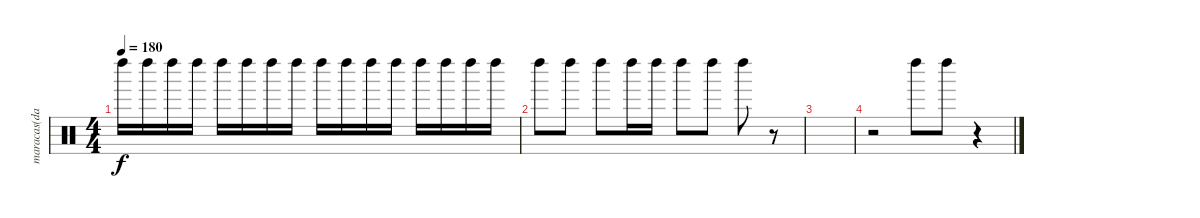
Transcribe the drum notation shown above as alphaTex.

\track ("maracas(dave)" "maracas(da") {instrument percussion}
\staff {score}
\articulation defaults
\ts (4 4)
\tempo 180
\clef neutral
\ks c "Left Maraca (hit)".16{dy f} "Left Maraca (hit)".16 "Left Maraca (hit)".16 "Left Maraca (hit)".16 "Left Maraca (hit)".16 "Left Maraca (hit)".16 "Left Maraca (hit)".16 "Left Maraca (hit)".16 "Left Maraca (hit)".16 "Left Maraca (hit)".16 "Left Maraca (hit)".16 "Left Maraca (hit)".16 "Left Maraca (hit)".16 "Left Maraca (hit)".16 "Left Maraca (hit)".16 "Left Maraca (hit)".16
|
"Left Maraca (hit)".8 "Left Maraca (hit)".8 "Left Maraca (hit)".8 "Left Maraca (hit)".16 "Left Maraca (hit)".16 "Left Maraca (hit)".8 "Left Maraca (hit)".8 "Left Maraca (hit)".8 r.8 |
|
r.2 "Left Maraca (hit)".8 "Left Maraca (hit)".8 r.4
